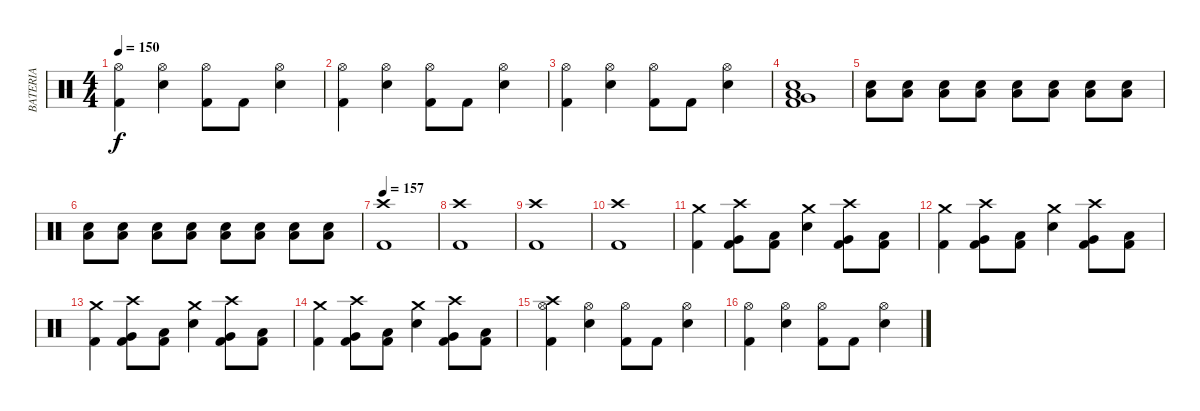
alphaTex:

\track ("BATERIA" "BATERIA") {instrument percussion}
\staff {score}
\articulation defaults
\ts (4 4)
\tempo 150
\clef neutral
\ks c
("Hi-Hat (open)" "Kick (hit) 2").4{dy f} ("Hi-Hat (open)" "Snare (hit) 2").4 ("Hi-Hat (open)" "Kick (hit) 2").8 "Kick (hit) 2".8 ("Hi-Hat (open)" "Snare (hit) 2").4 |
("Hi-Hat (open)" "Kick (hit) 2").4 ("Hi-Hat (open)" "Snare (hit) 2").4 ("Hi-Hat (open)" "Kick (hit) 2").8 "Kick (hit) 2".8 ("Hi-Hat (open)" "Snare (hit) 2").4 |
("Hi-Hat (open)" "Kick (hit) 2").4 ("Hi-Hat (open)" "Snare (hit) 2").4 ("Hi-Hat (open)" "Kick (hit) 2").8 "Kick (hit) 2".8 ("Hi-Hat (open)" "Snare (hit) 2").4 |
("Very Low Tom (hit)" "Snare (hit) 2" "Low Floor Tom (hit)" "Kick (hit) 2").1 |
("Snare (hit) 2" "Low Floor Tom (hit)").8{volume 10} ("Snare (hit) 2" "Low Floor Tom (hit)").8{volume 13} ("Snare (hit) 2" "Low Floor Tom (hit)").8 ("Snare (hit) 2" "Low Floor Tom (hit)").8 ("Snare (hit) 2" "Low Floor Tom (hit)").8 ("Snare (hit) 2" "Low Floor Tom (hit)").8 ("Snare (hit) 2" "Low Floor Tom (hit)").8 ("Snare (hit) 2" "Low Floor Tom (hit)").8 |
("Snare (hit) 2" "Low Floor Tom (hit)").8 ("Snare (hit) 2" "Low Floor Tom (hit)").8 ("Snare (hit) 2" "Low Floor Tom (hit)").8 ("Snare (hit) 2" "Low Floor Tom (hit)").8 ("Snare (hit) 2" "Low Floor Tom (hit)").8 ("Snare (hit) 2" "Low Floor Tom (hit)").8 ("Snare (hit) 2" "Low Floor Tom (hit)").8 ("Snare (hit) 2" "Low Floor Tom (hit)").8 |
\tempo 157
("Crash high (hit)" "Kick (hit) 2").1 |
("Crash high (hit)" "Kick (hit) 2").1 |
("Crash high (hit)" "Kick (hit) 2").1 |
("Crash high (hit)" "Kick (hit) 2").1 |
("Crash medium (hit)" "Kick (hit) 2").4 ("Crash high (hit)" "Very Low Tom (hit)" "Kick (hit) 2").8 ("Low Floor Tom (hit)" "Kick (hit) 2").8 ("Crash medium (hit)" "Snare (hit) 2").4 ("Crash high (hit)" "Very Low Tom (hit)" "Kick (hit) 2").8 ("Low Floor Tom (hit)" "Kick (hit) 2").8 |
("Crash medium (hit)" "Kick (hit) 2").4 ("Crash high (hit)" "Very Low Tom (hit)" "Kick (hit) 2").8 ("Low Floor Tom (hit)" "Kick (hit) 2").8 ("Crash medium (hit)" "Snare (hit) 2").4 ("Crash high (hit)" "Very Low Tom (hit)" "Kick (hit) 2").8 ("Low Floor Tom (hit)" "Kick (hit) 2").8 |
("Crash medium (hit)" "Kick (hit) 2").4 ("Crash high (hit)" "Very Low Tom (hit)" "Kick (hit) 2").8 ("Low Floor Tom (hit)" "Kick (hit) 2").8 ("Crash medium (hit)" "Snare (hit) 2").4 ("Crash high (hit)" "Very Low Tom (hit)" "Kick (hit) 2").8 ("Low Floor Tom (hit)" "Kick (hit) 2").8 |
("Crash medium (hit)" "Kick (hit) 2").4 ("Crash high (hit)" "Very Low Tom (hit)" "Kick (hit) 2").8 ("Low Floor Tom (hit)" "Kick (hit) 2").8 ("Crash medium (hit)" "Snare (hit) 2").4 ("Crash high (hit)" "Very Low Tom (hit)" "Kick (hit) 2").8 ("Low Floor Tom (hit)" "Kick (hit) 2").8 |
("Crash high (hit)" "Hi-Hat (open)" "Kick (hit) 2").4 ("Hi-Hat (open)" "Snare (hit) 2").4 ("Hi-Hat (open)" "Kick (hit) 2").8 "Kick (hit) 2".8 ("Hi-Hat (open)" "Snare (hit) 2").4 |
("Hi-Hat (open)" "Kick (hit) 2").4 ("Hi-Hat (open)" "Snare (hit) 2").4 ("Hi-Hat (open)" "Kick (hit) 2").8 "Kick (hit) 2".8 ("Hi-Hat (open)" "Snare (hit) 2").4
